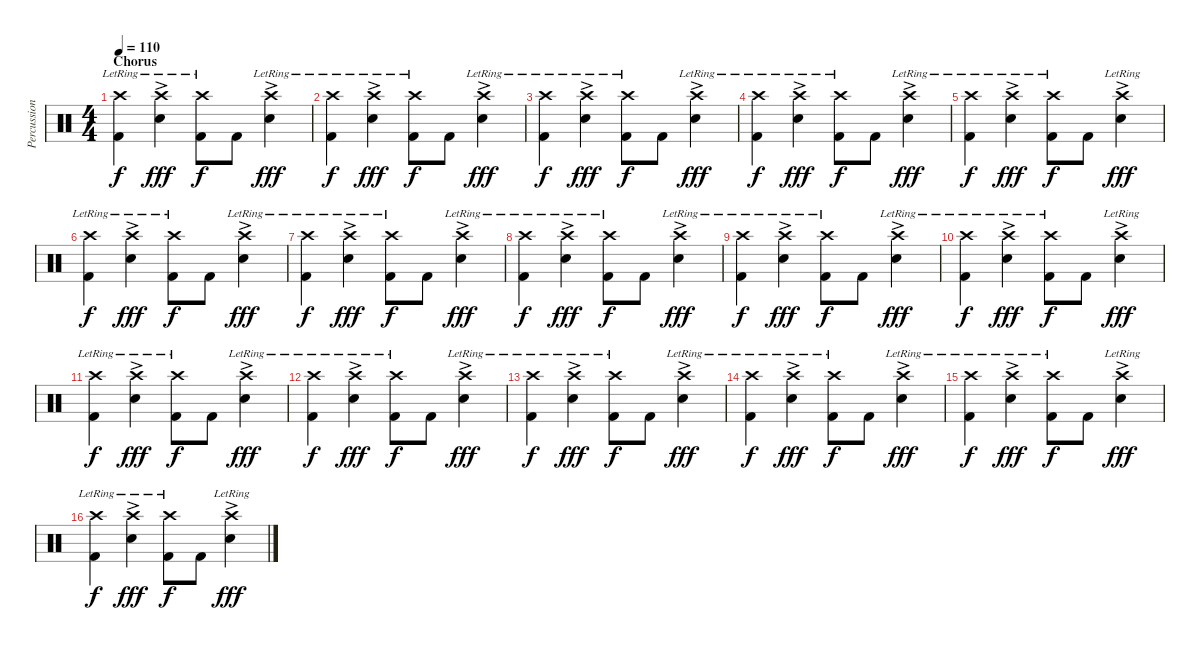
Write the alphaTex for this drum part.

\track ("Percussion" "Percussion") {instrument percussion}
\staff {score}
\articulation defaults
\ts (4 4)
\section ("" "Chorus")
\tempo 110
\clef neutral
\ks c
("Crash high (hit)"{lr} "Kick (hit) 2").4{dy f} ("Crash high (hit)"{ac lr} "Snare (hit) 2").4{dy fff} ("Crash high (hit)"{lr} "Kick (hit) 2").8{dy f} "Kick (hit) 2".8 ("Crash high (hit)"{lr} "Snare (hit) 2"{ac}).4{dy fff} |
("Crash high (hit)"{lr} "Kick (hit) 2").4{dy f} ("Crash high (hit)"{lr} "Snare (hit) 2"{ac}).4{dy fff} ("Crash high (hit)"{lr} "Kick (hit) 2").8{dy f} "Kick (hit) 2".8 ("Crash high (hit)"{lr} "Snare (hit) 2"{ac}).4{dy fff} |
("Crash high (hit)"{lr} "Kick (hit) 2").4{dy f} ("Crash high (hit)"{lr} "Snare (hit) 2"{ac}).4{dy fff} ("Crash high (hit)"{lr} "Kick (hit) 2").8{dy f} "Kick (hit) 2".8 ("Crash high (hit)"{lr} "Snare (hit) 2"{ac}).4{dy fff} |
("Crash high (hit)"{lr} "Kick (hit) 2").4{dy f} ("Crash high (hit)"{lr} "Snare (hit) 2"{ac}).4{dy fff} ("Crash high (hit)"{lr} "Kick (hit) 2").8{dy f} "Kick (hit) 2".8 ("Crash high (hit)"{lr} "Snare (hit) 2"{ac}).4{dy fff} |
("Crash high (hit)"{lr} "Kick (hit) 2").4{dy f} ("Crash high (hit)"{lr} "Snare (hit) 2"{ac}).4{dy fff} ("Crash high (hit)"{lr} "Kick (hit) 2").8{dy f} "Kick (hit) 2".8 ("Crash high (hit)"{lr} "Snare (hit) 2"{ac}).4{dy fff} |
("Crash high (hit)"{lr} "Kick (hit) 2").4{dy f} ("Crash high (hit)"{lr} "Snare (hit) 2"{ac}).4{dy fff} ("Crash high (hit)"{lr} "Kick (hit) 2").8{dy f} "Kick (hit) 2".8 ("Crash high (hit)"{lr} "Snare (hit) 2"{ac}).4{dy fff} |
("Crash high (hit)"{lr} "Kick (hit) 2").4{dy f} ("Crash high (hit)"{lr} "Snare (hit) 2"{ac}).4{dy fff} ("Crash high (hit)"{lr} "Kick (hit) 2").8{dy f} "Kick (hit) 2".8 ("Crash high (hit)"{lr} "Snare (hit) 2"{ac}).4{dy fff} |
("Crash high (hit)"{lr} "Kick (hit) 2").4{dy f} ("Crash high (hit)"{lr} "Snare (hit) 2"{ac}).4{dy fff} ("Crash high (hit)"{lr} "Kick (hit) 2").8{dy f} "Kick (hit) 2".8 ("Crash high (hit)"{lr} "Snare (hit) 2"{ac}).4{dy fff} |
("Crash high (hit)"{lr} "Kick (hit) 2").4{dy f} ("Crash high (hit)"{ac lr} "Snare (hit) 2").4{dy fff} ("Crash high (hit)"{lr} "Kick (hit) 2").8{dy f} "Kick (hit) 2".8 ("Crash high (hit)"{lr} "Snare (hit) 2"{ac}).4{dy fff} |
("Crash high (hit)"{lr} "Kick (hit) 2").4{dy f} ("Crash high (hit)"{lr} "Snare (hit) 2"{ac}).4{dy fff} ("Crash high (hit)"{lr} "Kick (hit) 2").8{dy f} "Kick (hit) 2".8 ("Crash high (hit)"{lr} "Snare (hit) 2"{ac}).4{dy fff} |
("Crash high (hit)"{lr} "Kick (hit) 2").4{dy f} ("Crash high (hit)"{lr} "Snare (hit) 2"{ac}).4{dy fff} ("Crash high (hit)"{lr} "Kick (hit) 2").8{dy f} "Kick (hit) 2".8 ("Crash high (hit)"{lr} "Snare (hit) 2"{ac}).4{dy fff} |
("Crash high (hit)"{lr} "Kick (hit) 2").4{dy f} ("Crash high (hit)"{lr} "Snare (hit) 2"{ac}).4{dy fff} ("Crash high (hit)"{lr} "Kick (hit) 2").8{dy f} "Kick (hit) 2".8 ("Crash high (hit)"{lr} "Snare (hit) 2"{ac}).4{dy fff} |
("Crash high (hit)"{lr} "Kick (hit) 2").4{dy f} ("Crash high (hit)"{lr} "Snare (hit) 2"{ac}).4{dy fff} ("Crash high (hit)"{lr} "Kick (hit) 2").8{dy f} "Kick (hit) 2".8 ("Crash high (hit)"{lr} "Snare (hit) 2"{ac}).4{dy fff} |
("Crash high (hit)"{lr} "Kick (hit) 2").4{dy f} ("Crash high (hit)"{lr} "Snare (hit) 2"{ac}).4{dy fff} ("Crash high (hit)"{lr} "Kick (hit) 2").8{dy f} "Kick (hit) 2".8 ("Crash high (hit)"{lr} "Snare (hit) 2"{ac}).4{dy fff} |
("Crash high (hit)"{lr} "Kick (hit) 2").4{dy f} ("Crash high (hit)"{lr} "Snare (hit) 2"{ac}).4{dy fff} ("Crash high (hit)"{lr} "Kick (hit) 2").8{dy f} "Kick (hit) 2".8 ("Crash high (hit)"{lr} "Snare (hit) 2"{ac}).4{dy fff} |
("Crash high (hit)"{lr} "Kick (hit) 2").4{dy f} ("Crash high (hit)"{lr} "Snare (hit) 2"{ac}).4{dy fff} ("Crash high (hit)"{lr} "Kick (hit) 2").8{dy f} "Kick (hit) 2".8 ("Crash high (hit)"{lr} "Snare (hit) 2"{ac}).4{dy fff}
